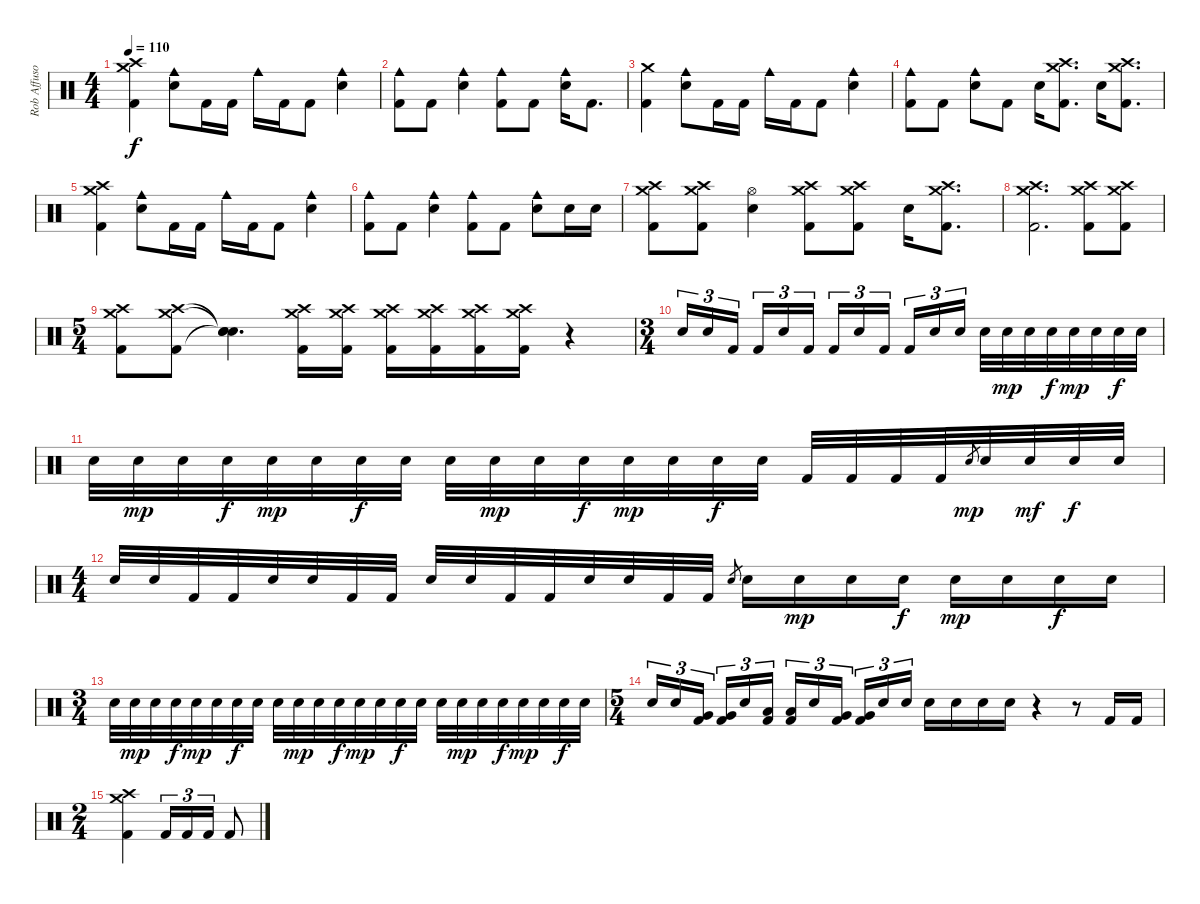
\track ("Rob Affuso - Drums" "Rob Affuso") {instrument percussion}
\staff {score}
\articulation defaults
\ts (4 4)
\tempo 110
\clef neutral
\ks c
("Crash medium (hit)" "Crash high (hit)" "Kick (hit) 2").4{dy f} ("Cowbell medium (hit)" "Snare (hit) 2").8 "Kick (hit) 2".16 "Kick (hit) 2".16 "Cowbell medium (hit)".16 "Kick (hit) 2".16 "Kick (hit) 2".8 ("Cowbell medium (hit)" "Snare (hit) 2").4 |
("Cowbell medium (hit)" "Kick (hit) 2").8 "Kick (hit) 2".8 ("Cowbell medium (hit)" "Snare (hit) 2").4 ("Cowbell medium (hit)" "Kick (hit) 2").8 "Kick (hit) 2".8 ("Cowbell medium (hit)" "Snare (hit) 2").16 "Kick (hit) 2".8{d} |
("Crash medium (hit)" "Kick (hit) 2").4 ("Cowbell medium (hit)" "Snare (hit) 2").8 "Kick (hit) 2".16 "Kick (hit) 2".16 "Cowbell medium (hit)".16 "Kick (hit) 2".16 "Kick (hit) 2".8 ("Cowbell medium (hit)" "Snare (hit) 2").4 |
("Cowbell medium (hit)" "Kick (hit) 2").8 "Kick (hit) 2".8 ("Cowbell medium (hit)" "Snare (hit) 2").8 "Kick (hit) 2".8 "Snare (hit) 2".16 ("Crash medium (hit)" "Crash high (hit)" "Kick (hit) 2").8{d} "Snare (hit) 2".16 ("Crash high (hit)" "Crash medium (hit)" "Kick (hit) 2").8{d} |
("Crash medium (hit)" "Crash high (hit)" "Kick (hit) 2").4 ("Cowbell medium (hit)" "Snare (hit) 2").8 "Kick (hit) 2".16 "Kick (hit) 2".16 "Cowbell medium (hit)".16 "Kick (hit) 2".16 "Kick (hit) 2".8 ("Cowbell medium (hit)" "Snare (hit) 2").4 |
("Cowbell medium (hit)" "Kick (hit) 2").8 "Kick (hit) 2".8 ("Cowbell medium (hit)" "Snare (hit) 2").4 ("Cowbell medium (hit)" "Kick (hit) 2").8 "Kick (hit) 2".8 ("Cowbell medium (hit)" "Snare (hit) 2").8 "Snare (hit) 2".16 "Snare (hit) 2".16 |
("Crash medium (hit)" "Crash high (hit)" "Kick (hit) 2").8 ("Crash high (hit)" "Crash medium (hit)" "Kick (hit) 2").8 ("Hi-Hat (open)" "Snare (hit) 2").4 ("Crash medium (hit)" "Crash high (hit)" "Kick (hit) 2").8 ("Crash high (hit)" "Crash medium (hit)" "Kick (hit) 2").8 "Snare (hit) 2".16 ("Crash medium (hit)" "Crash high (hit)" "Kick (hit) 2").8{d} |
("Crash medium (hit)" "Crash high (hit)" "Kick (hit) 2").2{d} ("Crash medium (hit)" "Crash high (hit)" "Kick (hit) 2").8 ("Crash medium (hit)" "Crash high (hit)" "Kick (hit) 2").8 |
\ts (5 4)
("Crash medium (hit)" "Crash high (hit)" "Kick (hit) 2").8 ("Crash medium (hit)" "Crash high (hit)" "Kick (hit) 2").8 ("Snare (hit)"{t} "Snare (hit)"{t} "Snare (hit)"{t}).4{d} ("Crash medium (hit)" "Crash high (hit)" "Kick (hit) 2").16 ("Crash medium (hit)" "Crash high (hit)" "Kick (hit) 2").16 ("Crash medium (hit)" "Crash high (hit)" "Kick (hit) 2").16 ("Crash medium (hit)" "Crash high (hit)" "Kick (hit) 2").16 ("Crash medium (hit)" "Crash high (hit)" "Kick (hit) 2").16 ("Crash medium (hit)" "Crash high (hit)" "Kick (hit) 2").16 r.4 |
\ts (3 4)
"Snare (hit) 2".16{tu (3 2)} "Snare (hit) 2".16{tu (3 2)} "Kick (hit) 2".16{tu (3 2) beam splitsecondary} "Kick (hit) 2".16{tu (3 2)} "Snare (hit) 2".16{tu (3 2)} "Kick (hit) 2".16{tu (3 2)} "Kick (hit) 2".16{tu (3 2)} "Snare (hit) 2".16{tu (3 2)} "Kick (hit) 2".16{tu (3 2) beam splitsecondary} "Kick (hit) 2".16{tu (3 2)} "Snare (hit) 2".16{tu (3 2)} "Snare (hit) 2".16{tu (3 2)} "Snare (hit) 2".32 "Snare (hit) 2".32{dy mp} "Snare (hit) 2".32 "Snare (hit) 2".32{dy f} "Snare (hit) 2".32{dy mp} "Snare (hit) 2".32 "Snare (hit) 2".32{dy f} "Snare (hit) 2".32 |
"Snare (hit) 2".32 "Snare (hit) 2".32{dy mp} "Snare (hit) 2".32 "Snare (hit) 2".32{dy f} "Snare (hit) 2".32{dy mp} "Snare (hit) 2".32 "Snare (hit) 2".32{dy f} "Snare (hit) 2".32 "Snare (hit) 2".32 "Snare (hit) 2".32{dy mp} "Snare (hit) 2".32 "Snare (hit) 2".32{dy f} "Snare (hit) 2".32{dy mp} "Snare (hit) 2".32 "Snare (hit) 2".32{dy f} "Snare (hit) 2".32 "Kick (hit) 2".32 "Kick (hit) 2".32 "Kick (hit) 2".32 "Kick (hit) 2".32 "Snare (hit) 2".8{gr dy mp} "Snare (hit) 2".32 "Snare (hit) 2".32{dy mf} "Snare (hit) 2".32{dy f} "Snare (hit) 2".32 |
\ts (4 4)
"Snare (hit) 2".32 "Snare (hit) 2".32 "Kick (hit) 2".32 "Kick (hit) 2".32 "Snare (hit) 2".32 "Snare (hit) 2".32 "Kick (hit) 2".32 "Kick (hit) 2".32 "Snare (hit) 2".32 "Snare (hit) 2".32 "Kick (hit) 2".32 "Kick (hit) 2".32 "Snare (hit) 2".32 "Snare (hit) 2".32 "Kick (hit) 2".32 "Kick (hit) 2".32 "Snare (hit) 2".8{gr} "Snare (hit) 2".16 "Snare (hit) 2".16{dy mp} "Snare (hit) 2".16 "Snare (hit) 2".16{dy f} "Snare (hit) 2".16{dy mp} "Snare (hit) 2".16 "Snare (hit) 2".16{dy f} "Snare (hit) 2".16 |
\ts (3 4)
"Snare (hit) 2".32 "Snare (hit) 2".32{dy mp} "Snare (hit) 2".32 "Snare (hit) 2".32{dy f} "Snare (hit) 2".32{dy mp} "Snare (hit) 2".32 "Snare (hit) 2".32{dy f} "Snare (hit) 2".32 "Snare (hit) 2".32 "Snare (hit) 2".32{dy mp} "Snare (hit) 2".32 "Snare (hit) 2".32{dy f} "Snare (hit) 2".32{dy mp} "Snare (hit) 2".32 "Snare (hit) 2".32{dy f} "Snare (hit) 2".32 "Snare (hit) 2".32 "Snare (hit) 2".32{dy mp} "Snare (hit) 2".32 "Snare (hit) 2".32{dy f} "Snare (hit) 2".32{dy mp} "Snare (hit) 2".32 "Snare (hit) 2".32{dy f} "Snare (hit) 2".32 |
\ts (5 4)
"Snare (hit) 2".16{tu (3 2)} "Snare (hit) 2".16{tu (3 2)} ("Very Low Tom (hit)" "Kick (hit) 2").16{tu (3 2) beam splitsecondary} ("Very Low Tom (hit)" "Kick (hit) 2").16{tu (3 2)} "Snare (hit) 2".16{tu (3 2)} ("Low Tom (hit)" "Kick (hit) 2").16{tu (3 2)} ("Low Tom (hit)" "Kick (hit) 2").16{tu (3 2)} "Snare (hit) 2".16{tu (3 2)} ("Very Low Tom (hit)" "Kick (hit) 2").16{tu (3 2) beam splitsecondary} ("Very Low Tom (hit)" "Kick (hit) 2").16{tu (3 2)} "Snare (hit) 2".16{tu (3 2)} "Snare (hit) 2".16{tu (3 2)} "Snare (hit) 2".16 "Snare (hit) 2".16 "Snare (hit) 2".16 "Snare (hit) 2".16 r.4 r.8 "Kick (hit) 2".16 "Kick (hit) 2".16 |
\ts (2 4)
("Crash medium (hit)" "Crash high (hit)" "Kick (hit) 2").4 "Kick (hit) 2".16{tu (3 2)} "Kick (hit) 2".16{tu (3 2)} "Kick (hit) 2".16{tu (3 2)} "Kick (hit) 2".8
